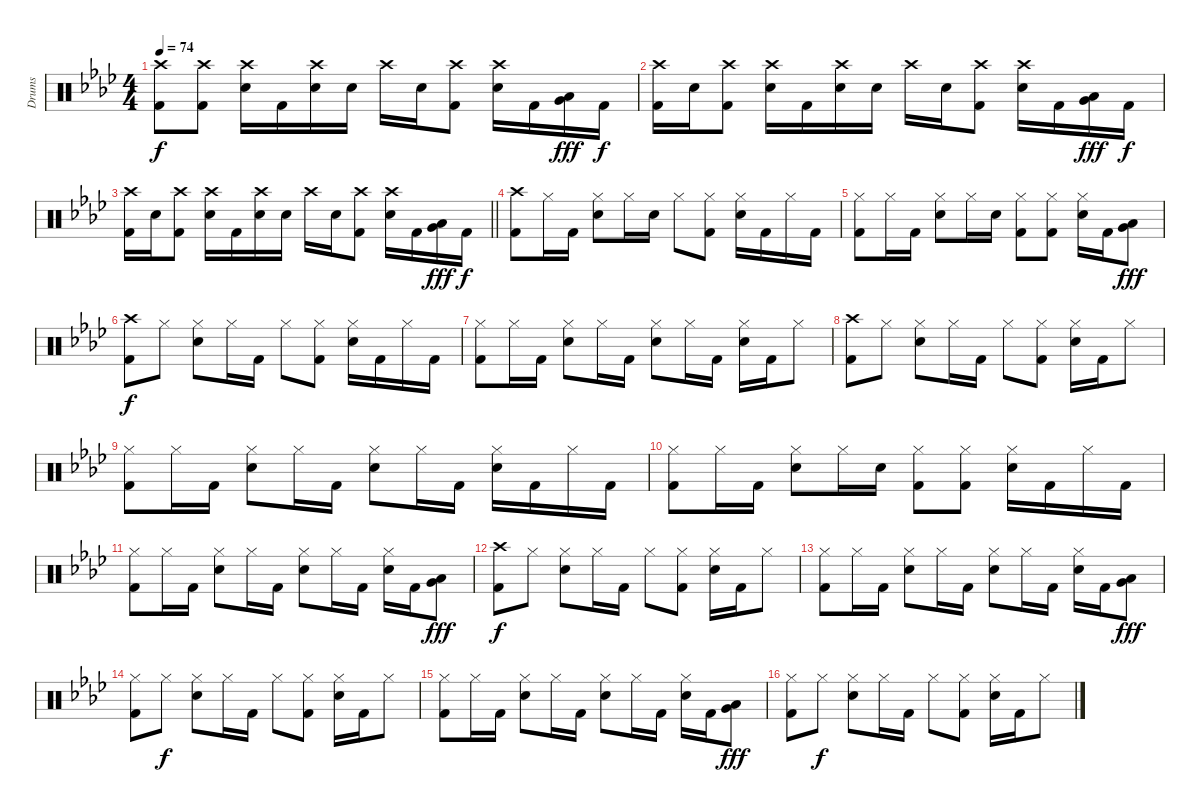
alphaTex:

\track ("Drums" "Drums") {instrument percussion}
\staff {score}
\articulation defaults
\ts (4 4)
\tempo 74
\clef neutral
\ks fminor
("Crash high (hit)" "Kick (hit) 2").8{dy f} ("Crash high (hit)" "Kick (hit) 2").8 ("Crash high (hit)" "Snare (hit) 2").16 "Kick (hit) 2".16 ("Crash high (hit)" "Snare (hit) 2").16 "Snare (hit) 2".16 "Crash high (hit)".16 "Snare (hit) 2".16 ("Crash high (hit)" "Kick (hit) 2").8 ("Crash high (hit)" "Snare (hit) 2").16 "Kick (hit) 2".16 ("Low Tom (hit)" "Very Low Tom (hit)").16{dy fff} "Kick (hit) 2".16{dy f} |
("Crash high (hit)" "Kick (hit) 2").16 "Snare (hit) 2".16 ("Crash high (hit)" "Kick (hit) 2").8 ("Crash high (hit)" "Snare (hit) 2").16 "Kick (hit) 2".16 ("Crash high (hit)" "Snare (hit) 2").16 "Snare (hit) 2".16 "Crash high (hit)".16 "Snare (hit) 2".16 ("Crash high (hit)" "Kick (hit) 2").8 ("Crash high (hit)" "Snare (hit) 2").16 "Kick (hit) 2".16 ("Low Tom (hit)" "Very Low Tom (hit)").16{dy fff} "Kick (hit) 2".16{dy f} |
\barLineRight lightlight
("Crash high (hit)" "Kick (hit) 2").16 "Snare (hit) 2".16 ("Crash high (hit)" "Kick (hit) 2").8 ("Crash high (hit)" "Snare (hit) 2").16 "Kick (hit) 2".16 ("Crash high (hit)" "Snare (hit) 2").16 "Snare (hit) 2".16 "Crash high (hit)".16 "Snare (hit) 2".16 ("Crash high (hit)" "Kick (hit) 2").8 ("Crash high (hit)" "Snare (hit) 2").16 "Kick (hit) 2".16 ("Low Tom (hit)" "Very Low Tom (hit)").16{dy fff} "Kick (hit) 2".16{dy f} |
("Crash high (hit)" "Kick (hit) 2").8 "Hi-Hat (closed)".16 "Kick (hit) 2".16 ("Hi-Hat (closed)" "Snare (hit) 2").8 "Hi-Hat (closed)".16 "Snare (hit) 2".16 "Hi-Hat (closed)".8 ("Hi-Hat (closed)" "Kick (hit) 2").8 ("Hi-Hat (closed)" "Snare (hit) 2").16 "Kick (hit) 2".16 "Hi-Hat (closed)".16 "Kick (hit) 2".16 |
("Hi-Hat (closed)" "Kick (hit) 2").8 "Hi-Hat (closed)".16 "Kick (hit) 2".16 ("Hi-Hat (closed)" "Snare (hit) 2").8 "Hi-Hat (closed)".16 "Snare (hit) 2".16 ("Hi-Hat (closed)" "Kick (hit) 2").8 ("Hi-Hat (closed)" "Kick (hit) 2").8 ("Hi-Hat (closed)" "Snare (hit) 2").16 "Kick (hit) 2".16 ("Low Tom (hit)" "Very Low Tom (hit)").8{dy fff} |
("Crash high (hit)" "Kick (hit) 2").8{dy f} "Hi-Hat (closed)".8 ("Hi-Hat (closed)" "Snare (hit) 2").8 "Hi-Hat (closed)".16 "Kick (hit) 2".16 "Hi-Hat (closed)".8 ("Hi-Hat (closed)" "Kick (hit) 2").8 ("Hi-Hat (closed)" "Snare (hit) 2").16 "Kick (hit) 2".16 "Hi-Hat (closed)".16 "Kick (hit) 2".16 |
("Hi-Hat (closed)" "Kick (hit) 2").8 "Hi-Hat (closed)".16 "Kick (hit) 2".16 ("Hi-Hat (closed)" "Snare (hit) 2").8 "Hi-Hat (closed)".16 "Kick (hit) 2".16 ("Hi-Hat (closed)" "Snare (hit) 2").8 "Hi-Hat (closed)".16 "Kick (hit) 2".16 ("Hi-Hat (closed)" "Snare (hit) 2").16 "Kick (hit) 2".16 "Hi-Hat (closed)".8 |
("Crash high (hit)" "Kick (hit) 2").8 "Hi-Hat (closed)".8 ("Hi-Hat (closed)" "Snare (hit) 2").8 "Hi-Hat (closed)".16 "Kick (hit) 2".16 "Hi-Hat (closed)".8 ("Hi-Hat (closed)" "Kick (hit) 2").8 ("Hi-Hat (closed)" "Snare (hit) 2").16 "Kick (hit) 2".16 "Hi-Hat (closed)".8 |
("Hi-Hat (closed)" "Kick (hit) 2").8 "Hi-Hat (closed)".16 "Kick (hit) 2".16 ("Hi-Hat (closed)" "Snare (hit) 2").8 "Hi-Hat (closed)".16 "Kick (hit) 2".16 ("Hi-Hat (closed)" "Snare (hit) 2").8 "Hi-Hat (closed)".16 "Kick (hit) 2".16 ("Hi-Hat (closed)" "Snare (hit) 2").16 "Kick (hit) 2".16 "Hi-Hat (closed)".16 "Kick (hit) 2".16 |
("Hi-Hat (closed)" "Kick (hit) 2").8 "Hi-Hat (closed)".16 "Kick (hit) 2".16 ("Hi-Hat (closed)" "Snare (hit) 2").8 "Hi-Hat (closed)".16 "Snare (hit) 2".16 ("Hi-Hat (closed)" "Kick (hit) 2").8 ("Hi-Hat (closed)" "Kick (hit) 2").8 ("Hi-Hat (closed)" "Snare (hit) 2").16 "Kick (hit) 2".16 "Hi-Hat (closed)".16 "Kick (hit) 2".16 |
("Hi-Hat (closed)" "Kick (hit) 2").8 "Hi-Hat (closed)".16 "Kick (hit) 2".16 ("Hi-Hat (closed)" "Snare (hit) 2").8 "Hi-Hat (closed)".16 "Kick (hit) 2".16 ("Hi-Hat (closed)" "Snare (hit) 2").8 "Hi-Hat (closed)".16 "Kick (hit) 2".16 ("Hi-Hat (closed)" "Snare (hit) 2").16 "Kick (hit) 2".16 ("Low Tom (hit)" "Very Low Tom (hit)").8{dy fff} |
("Crash high (hit)" "Kick (hit) 2").8{dy f} "Hi-Hat (closed)".8 ("Hi-Hat (closed)" "Snare (hit) 2").8 "Hi-Hat (closed)".16 "Kick (hit) 2".16 "Hi-Hat (closed)".8 ("Hi-Hat (closed)" "Kick (hit) 2").8 ("Hi-Hat (closed)" "Snare (hit) 2").16 "Kick (hit) 2".16 "Hi-Hat (closed)".8 |
("Hi-Hat (closed)" "Kick (hit) 2").8{volume 0} "Hi-Hat (closed)".16 "Kick (hit) 2".16 ("Hi-Hat (closed)" "Snare (hit) 2").8 "Hi-Hat (closed)".16 "Kick (hit) 2".16 ("Hi-Hat (closed)" "Snare (hit) 2").8 "Hi-Hat (closed)".16 "Kick (hit) 2".16 ("Hi-Hat (closed)" "Snare (hit) 2").16 "Kick (hit) 2".16 ("Low Tom (hit)" "Very Low Tom (hit)").8{dy fff} |
("Hi-Hat (closed)" "Kick (hit) 2").8 "Hi-Hat (closed)".8{dy f} ("Hi-Hat (closed)" "Snare (hit) 2").8 "Hi-Hat (closed)".16 "Kick (hit) 2".16 "Hi-Hat (closed)".8 ("Hi-Hat (closed)" "Kick (hit) 2").8 ("Hi-Hat (closed)" "Snare (hit) 2").16 "Kick (hit) 2".16 "Hi-Hat (closed)".8 |
("Hi-Hat (closed)" "Kick (hit) 2").8 "Hi-Hat (closed)".16 "Kick (hit) 2".16 ("Hi-Hat (closed)" "Snare (hit) 2").8 "Hi-Hat (closed)".16 "Kick (hit) 2".16 ("Hi-Hat (closed)" "Snare (hit) 2").8 "Hi-Hat (closed)".16 "Kick (hit) 2".16 ("Hi-Hat (closed)" "Snare (hit) 2").16 "Kick (hit) 2".16 ("Low Tom (hit)" "Very Low Tom (hit)").8{dy fff} |
("Hi-Hat (closed)" "Kick (hit) 2").8 "Hi-Hat (closed)".8{dy f} ("Hi-Hat (closed)" "Snare (hit) 2").8 "Hi-Hat (closed)".16 "Kick (hit) 2".16 "Hi-Hat (closed)".8 ("Hi-Hat (closed)" "Kick (hit) 2").8 ("Hi-Hat (closed)" "Snare (hit) 2").16 "Kick (hit) 2".16 "Hi-Hat (closed)".8
